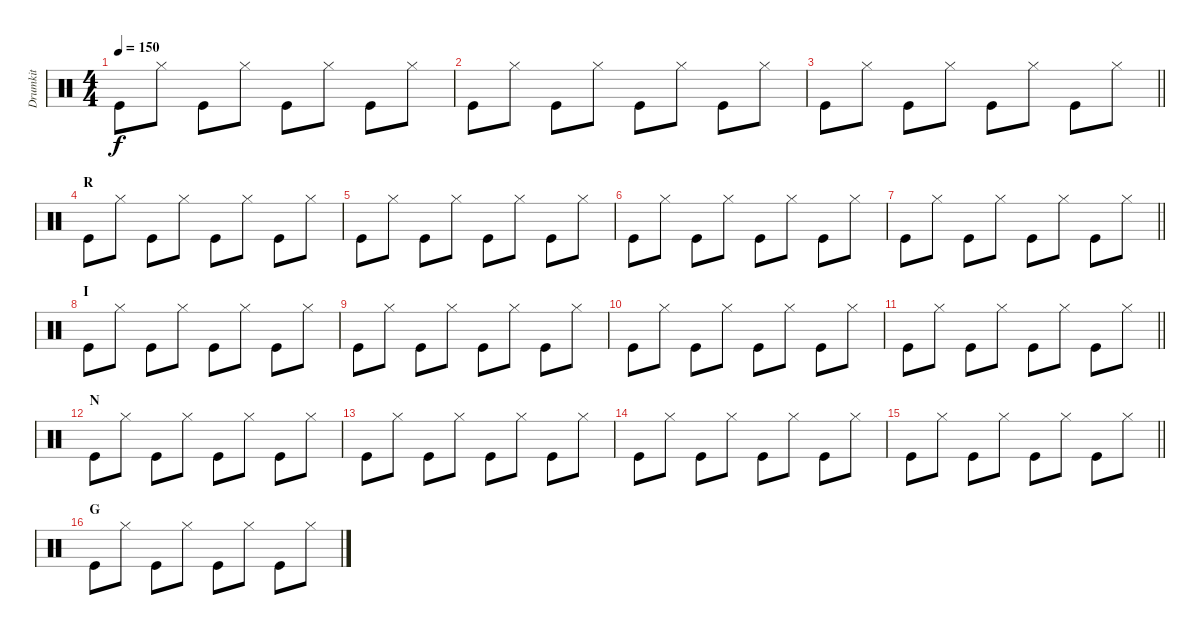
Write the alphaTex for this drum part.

\track ("Drumkit" "Drumkit") {instrument percussion}
\staff {score}
\articulation defaults
\ts (4 4)
\tempo 150
\clef neutral
\ks c "Kick (hit)".8{dy f} "Hi-Hat (closed)".8 "Kick (hit)".8 "Hi-Hat (closed)".8 "Kick (hit)".8 "Hi-Hat (closed)".8 "Kick (hit)".8 "Hi-Hat (closed)".8
|
"Kick (hit)".8 "Hi-Hat (closed)".8 "Kick (hit)".8 "Hi-Hat (closed)".8 "Kick (hit)".8 "Hi-Hat (closed)".8 "Kick (hit)".8 "Hi-Hat (closed)".8 |
\barLineRight lightlight "Kick (hit)".8 "Hi-Hat (closed)".8 "Kick (hit)".8 "Hi-Hat (closed)".8 "Kick (hit)".8 "Hi-Hat (closed)".8 "Kick (hit)".8 "Hi-Hat (closed)".8
|
\section ("" "R")
"Kick (hit)".8 "Hi-Hat (closed)".8 "Kick (hit)".8 "Hi-Hat (closed)".8 "Kick (hit)".8 "Hi-Hat (closed)".8 "Kick (hit)".8 "Hi-Hat (closed)".8 |
"Kick (hit)".8 "Hi-Hat (closed)".8 "Kick (hit)".8 "Hi-Hat (closed)".8 "Kick (hit)".8 "Hi-Hat (closed)".8 "Kick (hit)".8 "Hi-Hat (closed)".8 |
"Kick (hit)".8 "Hi-Hat (closed)".8 "Kick (hit)".8 "Hi-Hat (closed)".8 "Kick (hit)".8 "Hi-Hat (closed)".8 "Kick (hit)".8 "Hi-Hat (closed)".8 |
\barLineRight lightlight "Kick (hit)".8 "Hi-Hat (closed)".8 "Kick (hit)".8 "Hi-Hat (closed)".8 "Kick (hit)".8 "Hi-Hat (closed)".8 "Kick (hit)".8 "Hi-Hat (closed)".8
|
\section ("" "I")
"Kick (hit)".8 "Hi-Hat (closed)".8 "Kick (hit)".8 "Hi-Hat (closed)".8 "Kick (hit)".8 "Hi-Hat (closed)".8 "Kick (hit)".8 "Hi-Hat (closed)".8 |
"Kick (hit)".8 "Hi-Hat (closed)".8 "Kick (hit)".8 "Hi-Hat (closed)".8 "Kick (hit)".8 "Hi-Hat (closed)".8 "Kick (hit)".8 "Hi-Hat (closed)".8 |
"Kick (hit)".8 "Hi-Hat (closed)".8 "Kick (hit)".8 "Hi-Hat (closed)".8 "Kick (hit)".8 "Hi-Hat (closed)".8 "Kick (hit)".8 "Hi-Hat (closed)".8 |
\barLineRight lightlight "Kick (hit)".8 "Hi-Hat (closed)".8 "Kick (hit)".8 "Hi-Hat (closed)".8 "Kick (hit)".8 "Hi-Hat (closed)".8 "Kick (hit)".8 "Hi-Hat (closed)".8
|
\section ("" "N")
"Kick (hit)".8 "Hi-Hat (closed)".8 "Kick (hit)".8 "Hi-Hat (closed)".8 "Kick (hit)".8 "Hi-Hat (closed)".8 "Kick (hit)".8 "Hi-Hat (closed)".8 |
"Kick (hit)".8 "Hi-Hat (closed)".8 "Kick (hit)".8 "Hi-Hat (closed)".8 "Kick (hit)".8 "Hi-Hat (closed)".8 "Kick (hit)".8 "Hi-Hat (closed)".8 |
"Kick (hit)".8 "Hi-Hat (closed)".8 "Kick (hit)".8 "Hi-Hat (closed)".8 "Kick (hit)".8 "Hi-Hat (closed)".8 "Kick (hit)".8 "Hi-Hat (closed)".8 |
\barLineRight lightlight "Kick (hit)".8 "Hi-Hat (closed)".8 "Kick (hit)".8 "Hi-Hat (closed)".8 "Kick (hit)".8 "Hi-Hat (closed)".8 "Kick (hit)".8 "Hi-Hat (closed)".8
|
\section ("" "G")
"Kick (hit)".8 "Hi-Hat (closed)".8 "Kick (hit)".8 "Hi-Hat (closed)".8 "Kick (hit)".8 "Hi-Hat (closed)".8 "Kick (hit)".8 "Hi-Hat (closed)".8
